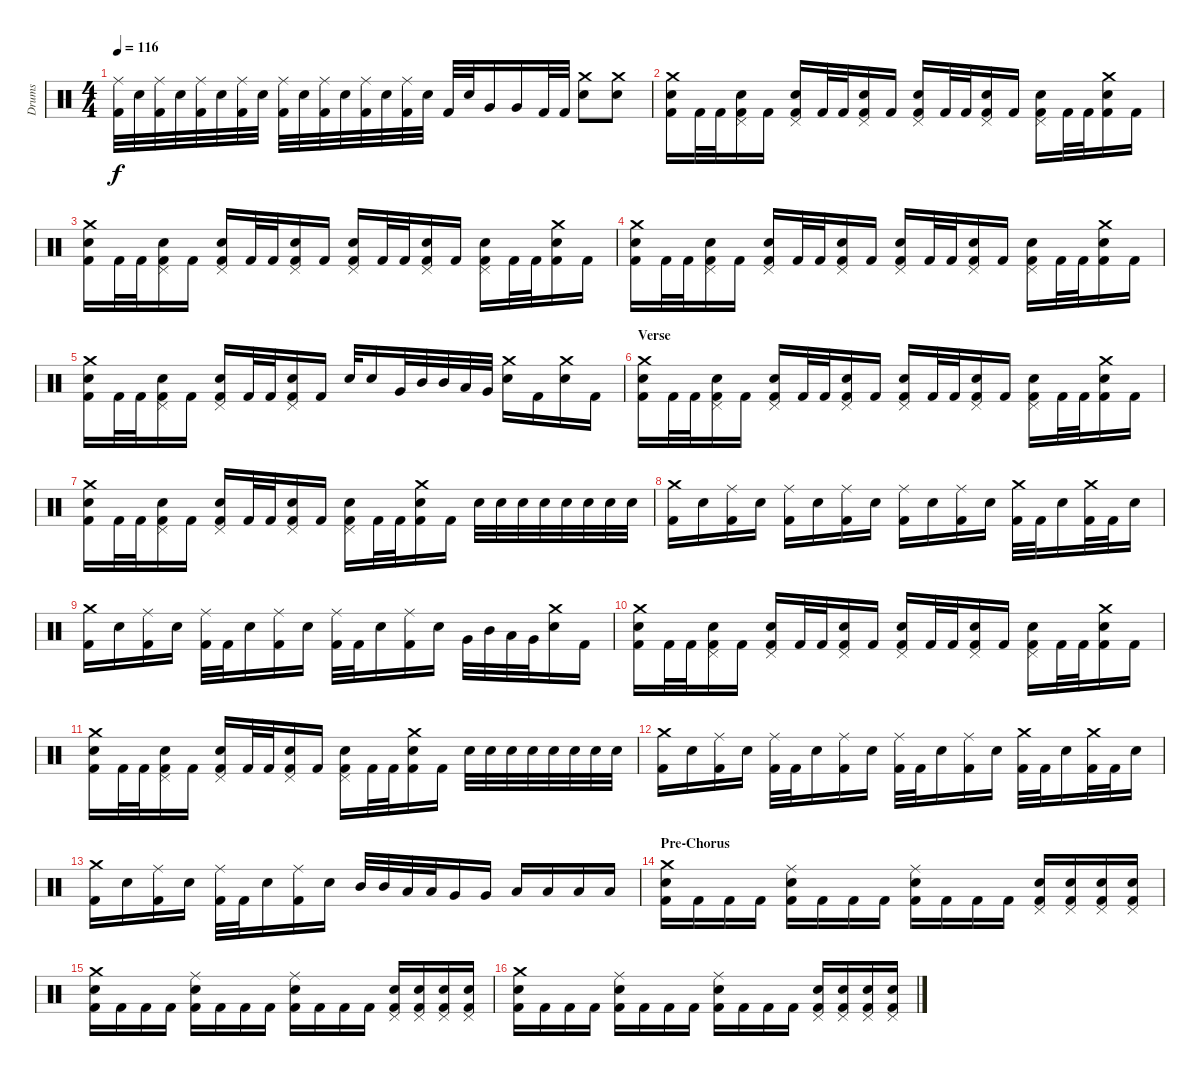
\track ("Drums" "Drums") {instrument percussion}
\staff {score}
\articulation defaults
\ts (4 4)
\tempo 116
\clef neutral
\ks c
("Ride (middle)" "Kick (hit) 2").32{dy f} "Electric Snare (hit)".32 ("Ride (middle)" "Kick (hit) 2").32 "Electric Snare (hit)".32 ("Ride (middle)" "Kick (hit) 2").32 "Electric Snare (hit)".32 ("Ride (middle)" "Kick (hit) 2").32 "Electric Snare (hit)".32 ("Ride (middle)" "Kick (hit) 2").32 "Electric Snare (hit)".32 ("Ride (middle)" "Kick (hit) 2").32 "Electric Snare (hit)".32 ("Ride (middle)" "Kick (hit) 2").32 "Electric Snare (hit)".32 ("Ride (middle)" "Kick (hit) 2").32 "Electric Snare (hit)".32 "Kick (hit) 2".32 "Electric Snare (hit)".32 "Very Low Tom (hit)".16 "Very Low Tom (hit)".16 "Kick (hit) 2".32 "Kick (hit) 2".32 ("Crash medium (hit)" "Electric Snare (hit)").8 ("Crash medium (hit)" "Electric Snare (hit)").8 |
\section ("" "")
("Crash medium (hit)" "Electric Snare (hit)" "Kick (hit) 2").16 "Kick (hit) 2".32 "Kick (hit) 2".32 ("Pedal Hi-Hat (hit)" "Electric Snare (hit)" "Kick (hit) 2").16 "Kick (hit) 2".16 ("Pedal Hi-Hat (hit)" "Electric Snare (hit)" "Kick (hit) 2").16 "Kick (hit) 2".32 "Kick (hit) 2".32 ("Pedal Hi-Hat (hit)" "Electric Snare (hit)" "Kick (hit) 2").16 "Kick (hit) 2".16 ("Pedal Hi-Hat (hit)" "Electric Snare (hit)" "Kick (hit) 2").16 "Kick (hit) 2".32 "Kick (hit) 2".32 ("Pedal Hi-Hat (hit)" "Electric Snare (hit)" "Kick (hit) 2").16 "Kick (hit) 2".16 ("Pedal Hi-Hat (hit)" "Electric Snare (hit)" "Kick (hit) 2").16 "Kick (hit) 2".32 "Kick (hit) 2".32 ("Crash medium (hit)" "Electric Snare (hit)" "Kick (hit) 2").16 "Kick (hit) 2".16 |
("Crash medium (hit)" "Electric Snare (hit)" "Kick (hit) 2").16 "Kick (hit) 2".32 "Kick (hit) 2".32 ("Pedal Hi-Hat (hit)" "Electric Snare (hit)" "Kick (hit) 2").16 "Kick (hit) 2".16 ("Pedal Hi-Hat (hit)" "Electric Snare (hit)" "Kick (hit) 2").16 "Kick (hit) 2".32 "Kick (hit) 2".32 ("Pedal Hi-Hat (hit)" "Electric Snare (hit)" "Kick (hit) 2").16 "Kick (hit) 2".16 ("Pedal Hi-Hat (hit)" "Electric Snare (hit)" "Kick (hit) 2").16 "Kick (hit) 2".32 "Kick (hit) 2".32 ("Pedal Hi-Hat (hit)" "Electric Snare (hit)" "Kick (hit) 2").16 "Kick (hit) 2".16 ("Pedal Hi-Hat (hit)" "Electric Snare (hit)" "Kick (hit) 2").16 "Kick (hit) 2".32 "Kick (hit) 2".32 ("Crash medium (hit)" "Electric Snare (hit)" "Kick (hit) 2").16 "Kick (hit) 2".16 |
("Crash medium (hit)" "Electric Snare (hit)" "Kick (hit) 2").16 "Kick (hit) 2".32 "Kick (hit) 2".32 ("Pedal Hi-Hat (hit)" "Electric Snare (hit)" "Kick (hit) 2").16 "Kick (hit) 2".16 ("Pedal Hi-Hat (hit)" "Electric Snare (hit)" "Kick (hit) 2").16 "Kick (hit) 2".32 "Kick (hit) 2".32 ("Pedal Hi-Hat (hit)" "Electric Snare (hit)" "Kick (hit) 2").16 "Kick (hit) 2".16 ("Pedal Hi-Hat (hit)" "Electric Snare (hit)" "Kick (hit) 2").16 "Kick (hit) 2".32 "Kick (hit) 2".32 ("Pedal Hi-Hat (hit)" "Electric Snare (hit)" "Kick (hit) 2").16 "Kick (hit) 2".16 ("Pedal Hi-Hat (hit)" "Electric Snare (hit)" "Kick (hit) 2").16 "Kick (hit) 2".32 "Kick (hit) 2".32 ("Crash medium (hit)" "Electric Snare (hit)" "Kick (hit) 2").16 "Kick (hit) 2".16 |
("Crash medium (hit)" "Electric Snare (hit)" "Kick (hit) 2").16 "Kick (hit) 2".32 "Kick (hit) 2".32 ("Pedal Hi-Hat (hit)" "Electric Snare (hit)" "Kick (hit) 2").16 "Kick (hit) 2".16 ("Pedal Hi-Hat (hit)" "Electric Snare (hit)" "Kick (hit) 2").16 "Kick (hit) 2".32 "Kick (hit) 2".32 ("Pedal Hi-Hat (hit)" "Electric Snare (hit)" "Kick (hit) 2").16 "Kick (hit) 2".16 "Electric Snare (hit)".32 "Electric Snare (hit)".16 "Very Low Tom (hit)".32 "Mid Tom (hit)".32 "Mid Tom (hit)".32 "Low Tom (hit)".32 "Very Low Tom (hit)".32 ("Crash medium (hit)" "Electric Snare (hit)").16 "Kick (hit) 2".16 ("Crash medium (hit)" "Electric Snare (hit)").16 "Kick (hit) 2".16 |
\section ("" "Verse")
("Crash medium (hit)" "Electric Snare (hit)" "Kick (hit) 2").16 "Kick (hit) 2".32 "Kick (hit) 2".32 ("Pedal Hi-Hat (hit)" "Electric Snare (hit)" "Kick (hit) 2").16 "Kick (hit) 2".16 ("Pedal Hi-Hat (hit)" "Electric Snare (hit)" "Kick (hit) 2").16 "Kick (hit) 2".32 "Kick (hit) 2".32 ("Pedal Hi-Hat (hit)" "Electric Snare (hit)" "Kick (hit) 2").16 "Kick (hit) 2".16 ("Pedal Hi-Hat (hit)" "Electric Snare (hit)" "Kick (hit) 2").16 "Kick (hit) 2".32 "Kick (hit) 2".32 ("Pedal Hi-Hat (hit)" "Electric Snare (hit)" "Kick (hit) 2").16 "Kick (hit) 2".16 ("Pedal Hi-Hat (hit)" "Electric Snare (hit)" "Kick (hit) 2").16 "Kick (hit) 2".32 "Kick (hit) 2".32 ("Crash medium (hit)" "Electric Snare (hit)" "Kick (hit) 2").16 "Kick (hit) 2".16 |
("Crash medium (hit)" "Electric Snare (hit)" "Kick (hit) 2").16 "Kick (hit) 2".32 "Kick (hit) 2".32 ("Pedal Hi-Hat (hit)" "Electric Snare (hit)" "Kick (hit) 2").16 "Kick (hit) 2".16 ("Pedal Hi-Hat (hit)" "Electric Snare (hit)" "Kick (hit) 2").16 "Kick (hit) 2".32 "Kick (hit) 2".32 ("Pedal Hi-Hat (hit)" "Electric Snare (hit)" "Kick (hit) 2").16 "Kick (hit) 2".16 ("Pedal Hi-Hat (hit)" "Electric Snare (hit)" "Kick (hit) 2").16 "Kick (hit) 2".32 "Kick (hit) 2".32 ("Crash medium (hit)" "Electric Snare (hit)" "Kick (hit) 2").16 "Kick (hit) 2".16 "Electric Snare (hit)".32 "Electric Snare (hit)".32 "Electric Snare (hit)".32 "Electric Snare (hit)".32 "Electric Snare (hit)".32 "Electric Snare (hit)".32 "Electric Snare (hit)".32 "Electric Snare (hit)".32 |
("Crash medium (hit)" "Kick (hit) 2").16 "Electric Snare (hit)".16 ("Ride (middle)" "Kick (hit) 2").16 "Electric Snare (hit)".16 ("Ride (middle)" "Kick (hit) 2").16 "Electric Snare (hit)".16 ("Ride (middle)" "Kick (hit) 2").16 "Electric Snare (hit)".16 ("Ride (middle)" "Kick (hit) 2").16 "Electric Snare (hit)".16 ("Ride (middle)" "Kick (hit) 2").16 "Electric Snare (hit)".16 ("Crash medium (hit)" "Kick (hit) 2").32 "Kick (hit) 2".32 "Electric Snare (hit)".16 ("Crash medium (hit)" "Kick (hit) 2").32 "Kick (hit) 2".32 "Electric Snare (hit)".16 |
("Crash medium (hit)" "Kick (hit) 2").16 "Electric Snare (hit)".16 ("Ride (middle)" "Kick (hit) 2").16 "Electric Snare (hit)".16 ("Ride (middle)" "Kick (hit) 2").32 "Kick (hit) 2".32 "Electric Snare (hit)".16 ("Ride (middle)" "Kick (hit) 2").16 "Electric Snare (hit)".16 ("Ride (middle)" "Kick (hit) 2").32 "Kick (hit) 2".32 "Electric Snare (hit)".16 ("Ride (middle)" "Kick (hit) 2").16 "Electric Snare (hit)".16 "Very Low Tom (hit)".32 "Mid Tom (hit)".32 "Low Tom (hit)".32 "Very Low Tom (hit)".32 ("Crash medium (hit)" "Electric Snare (hit)").16 "Kick (hit) 2".16 |
("Crash medium (hit)" "Electric Snare (hit)" "Kick (hit) 2").16 "Kick (hit) 2".32 "Kick (hit) 2".32 ("Pedal Hi-Hat (hit)" "Electric Snare (hit)" "Kick (hit) 2").16 "Kick (hit) 2".16 ("Pedal Hi-Hat (hit)" "Electric Snare (hit)" "Kick (hit) 2").16 "Kick (hit) 2".32 "Kick (hit) 2".32 ("Pedal Hi-Hat (hit)" "Electric Snare (hit)" "Kick (hit) 2").16 "Kick (hit) 2".16 ("Pedal Hi-Hat (hit)" "Electric Snare (hit)" "Kick (hit) 2").16 "Kick (hit) 2".32 "Kick (hit) 2".32 ("Pedal Hi-Hat (hit)" "Electric Snare (hit)" "Kick (hit) 2").16 "Kick (hit) 2".16 ("Pedal Hi-Hat (hit)" "Electric Snare (hit)" "Kick (hit) 2").16 "Kick (hit) 2".32 "Kick (hit) 2".32 ("Crash medium (hit)" "Electric Snare (hit)" "Kick (hit) 2").16 "Kick (hit) 2".16 |
("Crash medium (hit)" "Electric Snare (hit)" "Kick (hit) 2").16 "Kick (hit) 2".32 "Kick (hit) 2".32 ("Pedal Hi-Hat (hit)" "Electric Snare (hit)" "Kick (hit) 2").16 "Kick (hit) 2".16 ("Pedal Hi-Hat (hit)" "Electric Snare (hit)" "Kick (hit) 2").16 "Kick (hit) 2".32 "Kick (hit) 2".32 ("Pedal Hi-Hat (hit)" "Electric Snare (hit)" "Kick (hit) 2").16 "Kick (hit) 2".16 ("Pedal Hi-Hat (hit)" "Electric Snare (hit)" "Kick (hit) 2").16 "Kick (hit) 2".32 "Kick (hit) 2".32 ("Crash medium (hit)" "Electric Snare (hit)" "Kick (hit) 2").16 "Kick (hit) 2".16 "Electric Snare (hit)".32 "Electric Snare (hit)".32 "Electric Snare (hit)".32 "Electric Snare (hit)".32 "Electric Snare (hit)".32 "Electric Snare (hit)".32 "Electric Snare (hit)".32 "Electric Snare (hit)".32 |
("Crash medium (hit)" "Kick (hit) 2").16 "Electric Snare (hit)".16 ("Ride (middle)" "Kick (hit) 2").16 "Electric Snare (hit)".16 ("Ride (middle)" "Kick (hit) 2").32 "Kick (hit) 2".32 "Electric Snare (hit)".16 ("Ride (middle)" "Kick (hit) 2").16 "Electric Snare (hit)".16 ("Ride (middle)" "Kick (hit) 2").32 "Kick (hit) 2".32 "Electric Snare (hit)".16 ("Ride (middle)" "Kick (hit) 2").16 "Electric Snare (hit)".16 ("Crash medium (hit)" "Kick (hit) 2").32 "Kick (hit) 2".32 "Electric Snare (hit)".16 ("Crash medium (hit)" "Kick (hit) 2").32 "Kick (hit) 2".32 "Electric Snare (hit)".16 |
("Crash medium (hit)" "Kick (hit) 2").16 "Electric Snare (hit)".16 ("Ride (middle)" "Kick (hit) 2").16 "Electric Snare (hit)".16 ("Ride (middle)" "Kick (hit) 2").32 "Kick (hit) 2".32 "Electric Snare (hit)".16 ("Ride (middle)" "Kick (hit) 2").16 "Electric Snare (hit)".16 "Mid Tom (hit)".32 "Mid Tom (hit)".32 "Low Tom (hit)".32 "Low Tom (hit)".32 "Very Low Tom (hit)".16 "Very Low Tom (hit)".16 "Low Floor Tom (hit)".16 "Low Floor Tom (hit)".16 "Low Floor Tom (hit)".16 "Low Floor Tom (hit)".16 |
\section ("" "Pre-Chorus")
("Crash medium (hit)" "Electric Snare (hit)" "Kick (hit) 2").16 "Kick (hit) 2".16 "Kick (hit) 2".16 "Kick (hit) 2".16 ("Ride (middle)" "Electric Snare (hit)" "Kick (hit) 2").16 "Kick (hit) 2".16 "Kick (hit) 2".16 "Kick (hit) 2".16 ("Ride (middle)" "Electric Snare (hit)" "Kick (hit) 2").16 "Kick (hit) 2".16 "Kick (hit) 2".16 "Kick (hit) 2".16 ("Pedal Hi-Hat (hit)" "Electric Snare (hit)" "Kick (hit) 2").16 ("Pedal Hi-Hat (hit)" "Electric Snare (hit)" "Kick (hit) 2").16 ("Pedal Hi-Hat (hit)" "Electric Snare (hit)" "Kick (hit) 2").16 ("Pedal Hi-Hat (hit)" "Electric Snare (hit)" "Kick (hit) 2").16 |
("Crash medium (hit)" "Electric Snare (hit)" "Kick (hit) 2").16 "Kick (hit) 2".16 "Kick (hit) 2".16 "Kick (hit) 2".16 ("Ride (middle)" "Electric Snare (hit)" "Kick (hit) 2").16 "Kick (hit) 2".16 "Kick (hit) 2".16 "Kick (hit) 2".16 ("Ride (middle)" "Electric Snare (hit)" "Kick (hit) 2").16 "Kick (hit) 2".16 "Kick (hit) 2".16 "Kick (hit) 2".16 ("Pedal Hi-Hat (hit)" "Electric Snare (hit)" "Kick (hit) 2").16 ("Pedal Hi-Hat (hit)" "Electric Snare (hit)" "Kick (hit) 2").16 ("Pedal Hi-Hat (hit)" "Electric Snare (hit)" "Kick (hit) 2").16 ("Pedal Hi-Hat (hit)" "Electric Snare (hit)" "Kick (hit) 2").16 |
("Crash medium (hit)" "Electric Snare (hit)" "Kick (hit) 2").16 "Kick (hit) 2".16 "Kick (hit) 2".16 "Kick (hit) 2".16 ("Ride (middle)" "Electric Snare (hit)" "Kick (hit) 2").16 "Kick (hit) 2".16 "Kick (hit) 2".16 "Kick (hit) 2".16 ("Ride (middle)" "Electric Snare (hit)" "Kick (hit) 2").16 "Kick (hit) 2".16 "Kick (hit) 2".16 "Kick (hit) 2".16 ("Pedal Hi-Hat (hit)" "Electric Snare (hit)" "Kick (hit) 2").16 ("Pedal Hi-Hat (hit)" "Electric Snare (hit)" "Kick (hit) 2").16 ("Pedal Hi-Hat (hit)" "Electric Snare (hit)" "Kick (hit) 2").16 ("Pedal Hi-Hat (hit)" "Electric Snare (hit)" "Kick (hit) 2").16
